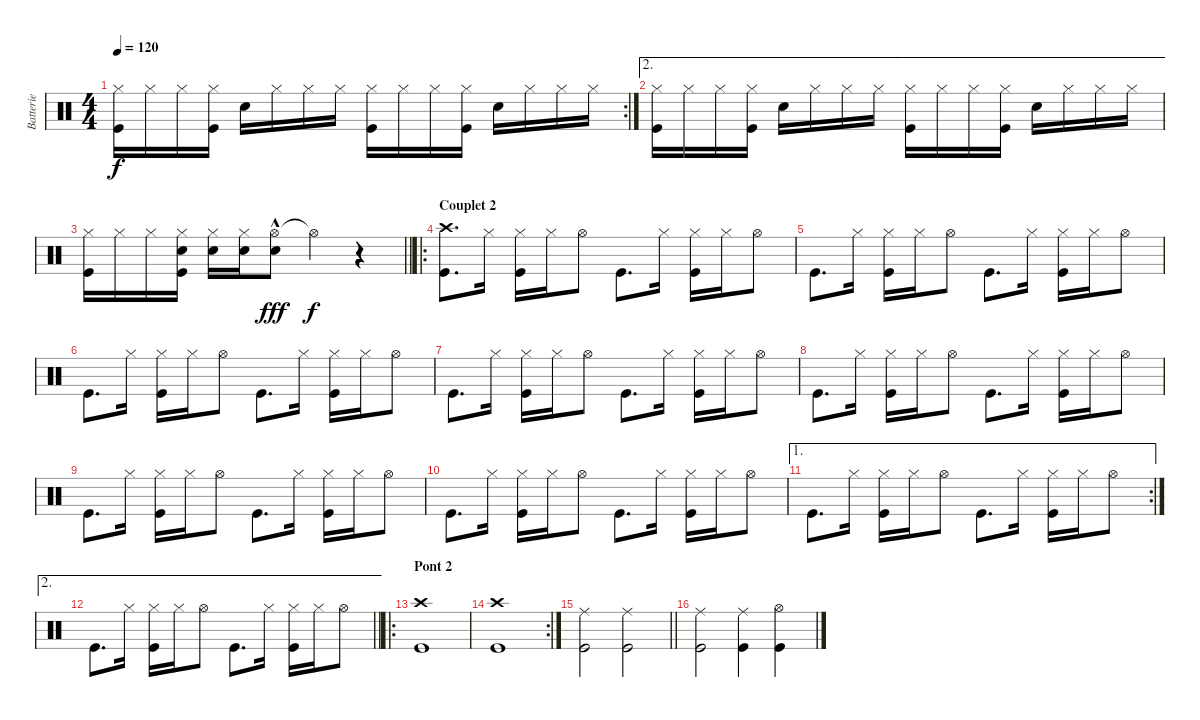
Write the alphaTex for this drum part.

\track ("Batterie" "Batterie") {instrument percussion}
\staff {score}
\articulation defaults
\rc 2
\ts (4 4)
\tempo 120
\clef neutral
\ks c
("Hi-Hat (closed)" "Kick (hit)").16{dy f} "Hi-Hat (closed)".16 "Hi-Hat (closed)".16 ("Hi-Hat (closed)" "Kick (hit)").16 "Snare (hit) 2".16 "Hi-Hat (closed)".16 "Hi-Hat (closed)".16 "Hi-Hat (closed)".16 ("Hi-Hat (closed)" "Kick (hit)").16 "Hi-Hat (closed)".16 "Hi-Hat (closed)".16 ("Hi-Hat (closed)" "Kick (hit)").16 "Snare (hit) 2".16 "Hi-Hat (closed)".16 "Hi-Hat (closed)".16 "Hi-Hat (closed)".16 |
\ae 2
("Hi-Hat (closed)" "Kick (hit)").16 "Hi-Hat (closed)".16 "Hi-Hat (closed)".16 ("Hi-Hat (closed)" "Kick (hit)").16 "Snare (hit) 2".16 "Hi-Hat (closed)".16 "Hi-Hat (closed)".16 "Hi-Hat (closed)".16 ("Hi-Hat (closed)" "Kick (hit)").16 "Hi-Hat (closed)".16 "Hi-Hat (closed)".16 ("Hi-Hat (closed)" "Kick (hit)").16 "Snare (hit) 2".16 "Hi-Hat (closed)".16 "Hi-Hat (closed)".16 "Hi-Hat (closed)".16 |
\barLineRight lightlight
("Hi-Hat (closed)" "Kick (hit)").16 "Hi-Hat (closed)".16 "Hi-Hat (closed)".16 ("Hi-Hat (closed)" "Kick (hit)" "Snare (hit) 2").16 ("Hi-Hat (closed)" "Snare (hit) 2").16 ("Snare (hit) 2" "Hi-Hat (closed)").16 ("Hi-Hat (open)"{hac} "Snare (hit) 2").8{dy fff} "Hi-Hat (open)"{t}.4{dy f} r.4 |
\ro
\section ("" "Couplet 2")
("Kick (hit)" "Crash high (hit)").8{d} "Hi-Hat (closed)".16 ("Kick (hit)" "Hi-Hat (closed)").16 "Hi-Hat (closed)".16 "Hi-Hat (open)".8 "Kick (hit)".8{d} "Hi-Hat (closed)".16 ("Kick (hit)" "Hi-Hat (closed)").16 "Hi-Hat (closed)".16 "Hi-Hat (open)".8 |
"Kick (hit)".8{d} "Hi-Hat (closed)".16 ("Kick (hit)" "Hi-Hat (closed)").16 "Hi-Hat (closed)".16 "Hi-Hat (open)".8 "Kick (hit)".8{d} "Hi-Hat (closed)".16 ("Kick (hit)" "Hi-Hat (closed)").16 "Hi-Hat (closed)".16 "Hi-Hat (open)".8 |
"Kick (hit)".8{d} "Hi-Hat (closed)".16 ("Kick (hit)" "Hi-Hat (closed)").16 "Hi-Hat (closed)".16 "Hi-Hat (open)".8 "Kick (hit)".8{d} "Hi-Hat (closed)".16 ("Kick (hit)" "Hi-Hat (closed)").16 "Hi-Hat (closed)".16 "Hi-Hat (open)".8 |
"Kick (hit)".8{d} "Hi-Hat (closed)".16 ("Kick (hit)" "Hi-Hat (closed)").16 "Hi-Hat (closed)".16 "Hi-Hat (open)".8 "Kick (hit)".8{d} "Hi-Hat (closed)".16 ("Kick (hit)" "Hi-Hat (closed)").16 "Hi-Hat (closed)".16 "Hi-Hat (open)".8 |
"Kick (hit)".8{d} "Hi-Hat (closed)".16 ("Kick (hit)" "Hi-Hat (closed)").16 "Hi-Hat (closed)".16 "Hi-Hat (open)".8 "Kick (hit)".8{d} "Hi-Hat (closed)".16 ("Kick (hit)" "Hi-Hat (closed)").16 "Hi-Hat (closed)".16 "Hi-Hat (open)".8 |
"Kick (hit)".8{d} "Hi-Hat (closed)".16 ("Kick (hit)" "Hi-Hat (closed)").16 "Hi-Hat (closed)".16 "Hi-Hat (open)".8 "Kick (hit)".8{d} "Hi-Hat (closed)".16 ("Kick (hit)" "Hi-Hat (closed)").16 "Hi-Hat (closed)".16 "Hi-Hat (open)".8 |
"Kick (hit)".8{d} "Hi-Hat (closed)".16 ("Kick (hit)" "Hi-Hat (closed)").16 "Hi-Hat (closed)".16 "Hi-Hat (open)".8 "Kick (hit)".8{d} "Hi-Hat (closed)".16 ("Kick (hit)" "Hi-Hat (closed)").16 "Hi-Hat (closed)".16 "Hi-Hat (open)".8 |
\ae 1
\rc 2 "Kick (hit)".8{d} "Hi-Hat (closed)".16
("Kick (hit)" "Hi-Hat (closed)").16 "Hi-Hat (closed)".16 "Hi-Hat (open)".8 "Kick (hit)".8{d} "Hi-Hat (closed)".16 ("Kick (hit)" "Hi-Hat (closed)").16 "Hi-Hat (closed)".16 "Hi-Hat (open)".8 |
\ae 2
\barLineRight lightlight "Kick (hit)".8{d} "Hi-Hat (closed)".16
("Kick (hit)" "Hi-Hat (closed)").16 "Hi-Hat (closed)".16 "Hi-Hat (open)".8 "Kick (hit)".8{d} "Hi-Hat (closed)".16 ("Kick (hit)" "Hi-Hat (closed)").16 "Hi-Hat (closed)".16 "Hi-Hat (open)".8 |
\ro
\section ("" "Pont 2")
("Kick (hit)" "Crash high (hit)").1 |
\rc 2
("Kick (hit)" "Crash high (hit)").1 |
\barLineRight lightlight
("Kick (hit)" "Ride (middle)").2 ("Kick (hit)" "Ride (middle)").2 |
("Kick (hit)" "Ride (middle)").2 ("Kick (hit)" "Ride (middle)").4 ("Kick (hit)" "Hi-Hat (open)").4
